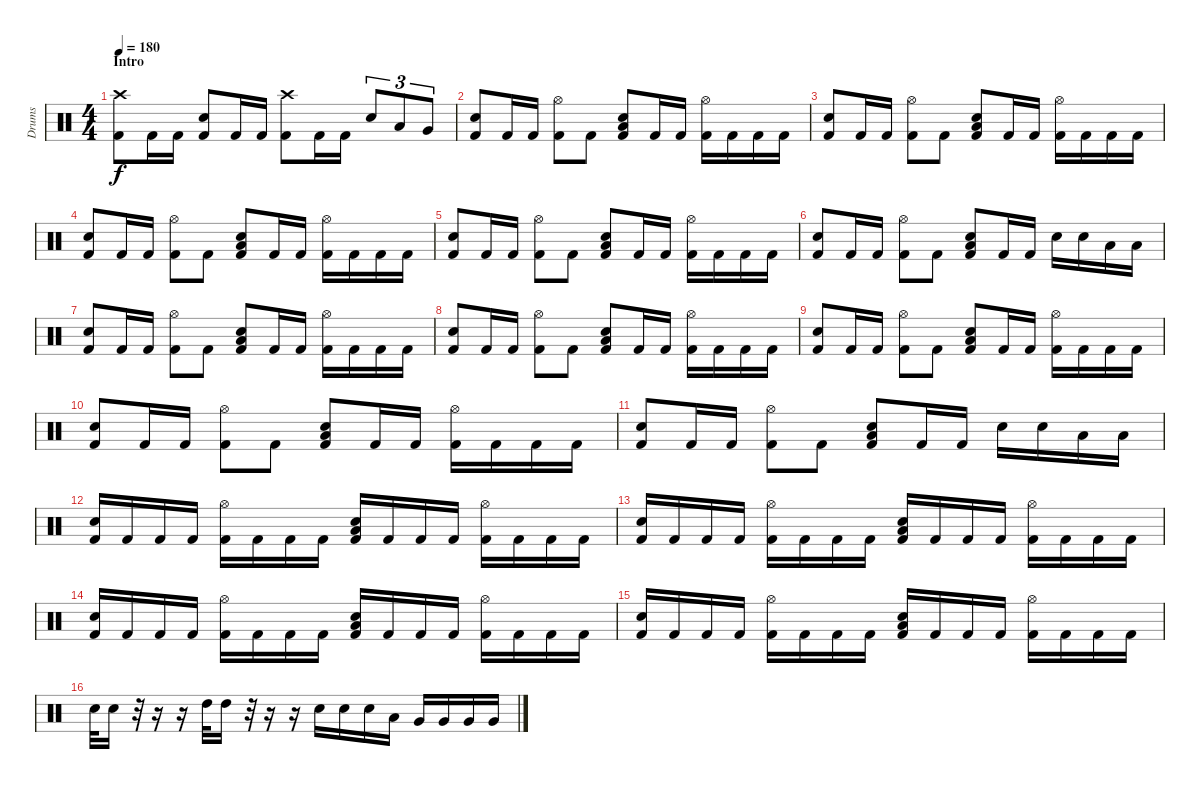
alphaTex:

\track ("Drums" "Drums") {instrument percussion}
\staff {score}
\articulation defaults
\ts (4 4)
\section ("" "Intro")
\tempo 180
\clef neutral
\ks c
("Kick (hit) 2" "Crash high (hit)").8{dy f} "Kick (hit) 2".16 "Kick (hit) 2".16 ("Kick (hit) 2" "Electric Snare (hit)").8 "Kick (hit) 2".16 "Kick (hit) 2".16 ("Kick (hit) 2" "Crash high (hit)").8 "Kick (hit) 2".16 "Kick (hit) 2".16 "Electric Snare (hit)".8{tu (3 2)} "Low Tom (hit)".8{tu (3 2)} "Very Low Tom (hit)".8{tu (3 2)} |
("Kick (hit) 2" "Electric Snare (hit)").8 "Kick (hit) 2".16 "Kick (hit) 2".16 ("Kick (hit) 2" "Hi-Hat (open)").8 "Kick (hit) 2".8 ("Kick (hit) 2" "Low Tom (hit)" "Electric Snare (hit)").8 "Kick (hit) 2".16 "Kick (hit) 2".16 ("Kick (hit) 2" "Hi-Hat (open)").16 "Kick (hit) 2".16 "Kick (hit) 2".16 "Kick (hit) 2".16 |
("Kick (hit) 2" "Electric Snare (hit)").8 "Kick (hit) 2".16 "Kick (hit) 2".16 ("Kick (hit) 2" "Hi-Hat (open)").8 "Kick (hit) 2".8 ("Kick (hit) 2" "Low Tom (hit)" "Electric Snare (hit)").8 "Kick (hit) 2".16 "Kick (hit) 2".16 ("Kick (hit) 2" "Hi-Hat (open)").16 "Kick (hit) 2".16 "Kick (hit) 2".16 "Kick (hit) 2".16 |
("Kick (hit) 2" "Electric Snare (hit)").8 "Kick (hit) 2".16 "Kick (hit) 2".16 ("Kick (hit) 2" "Hi-Hat (open)").8 "Kick (hit) 2".8 ("Kick (hit) 2" "Low Tom (hit)" "Electric Snare (hit)").8 "Kick (hit) 2".16 "Kick (hit) 2".16 ("Kick (hit) 2" "Hi-Hat (open)").16 "Kick (hit) 2".16 "Kick (hit) 2".16 "Kick (hit) 2".16 |
("Kick (hit) 2" "Electric Snare (hit)").8 "Kick (hit) 2".16 "Kick (hit) 2".16 ("Kick (hit) 2" "Hi-Hat (open)").8 "Kick (hit) 2".8 ("Kick (hit) 2" "Low Tom (hit)" "Electric Snare (hit)").8 "Kick (hit) 2".16 "Kick (hit) 2".16 ("Kick (hit) 2" "Hi-Hat (open)").16 "Kick (hit) 2".16 "Kick (hit) 2".16 "Kick (hit) 2".16 |
("Kick (hit) 2" "Electric Snare (hit)").8 "Kick (hit) 2".16 "Kick (hit) 2".16 ("Kick (hit) 2" "Hi-Hat (open)").8 "Kick (hit) 2".8 ("Kick (hit) 2" "Low Tom (hit)" "Electric Snare (hit)").8 "Kick (hit) 2".16 "Kick (hit) 2".16 "Electric Snare (hit)".16 "Electric Snare (hit)".16 "Low Tom (hit)".16 "Low Tom (hit)".16 |
("Kick (hit) 2" "Electric Snare (hit)").8 "Kick (hit) 2".16 "Kick (hit) 2".16 ("Kick (hit) 2" "Hi-Hat (open)").8 "Kick (hit) 2".8 ("Kick (hit) 2" "Low Tom (hit)" "Electric Snare (hit)").8 "Kick (hit) 2".16 "Kick (hit) 2".16 ("Kick (hit) 2" "Hi-Hat (open)").16 "Kick (hit) 2".16 "Kick (hit) 2".16 "Kick (hit) 2".16 |
("Kick (hit) 2" "Electric Snare (hit)").8 "Kick (hit) 2".16 "Kick (hit) 2".16 ("Kick (hit) 2" "Hi-Hat (open)").8 "Kick (hit) 2".8 ("Kick (hit) 2" "Low Tom (hit)" "Electric Snare (hit)").8 "Kick (hit) 2".16 "Kick (hit) 2".16 ("Kick (hit) 2" "Hi-Hat (open)").16 "Kick (hit) 2".16 "Kick (hit) 2".16 "Kick (hit) 2".16 |
("Kick (hit) 2" "Electric Snare (hit)").8 "Kick (hit) 2".16 "Kick (hit) 2".16 ("Kick (hit) 2" "Hi-Hat (open)").8 "Kick (hit) 2".8 ("Kick (hit) 2" "Low Tom (hit)" "Electric Snare (hit)").8 "Kick (hit) 2".16 "Kick (hit) 2".16 ("Kick (hit) 2" "Hi-Hat (open)").16 "Kick (hit) 2".16 "Kick (hit) 2".16 "Kick (hit) 2".16 |
("Kick (hit) 2" "Electric Snare (hit)").8 "Kick (hit) 2".16 "Kick (hit) 2".16 ("Kick (hit) 2" "Hi-Hat (open)").8 "Kick (hit) 2".8 ("Kick (hit) 2" "Low Tom (hit)" "Electric Snare (hit)").8 "Kick (hit) 2".16 "Kick (hit) 2".16 ("Kick (hit) 2" "Hi-Hat (open)").16 "Kick (hit) 2".16 "Kick (hit) 2".16 "Kick (hit) 2".16 |
("Kick (hit) 2" "Electric Snare (hit)").8 "Kick (hit) 2".16 "Kick (hit) 2".16 ("Kick (hit) 2" "Hi-Hat (open)").8 "Kick (hit) 2".8 ("Kick (hit) 2" "Low Tom (hit)" "Electric Snare (hit)").8 "Kick (hit) 2".16 "Kick (hit) 2".16 "Electric Snare (hit)".16 "Electric Snare (hit)".16 "Low Tom (hit)".16 "Low Tom (hit)".16 |
("Kick (hit) 2" "Electric Snare (hit)").16 "Kick (hit) 2".16 "Kick (hit) 2".16 "Kick (hit) 2".16 ("Kick (hit) 2" "Hi-Hat (open)").16 "Kick (hit) 2".16 "Kick (hit) 2".16 "Kick (hit) 2".16 ("Kick (hit) 2" "Low Tom (hit)" "Electric Snare (hit)").16 "Kick (hit) 2".16 "Kick (hit) 2".16 "Kick (hit) 2".16 ("Kick (hit) 2" "Hi-Hat (open)").16 "Kick (hit) 2".16 "Kick (hit) 2".16 "Kick (hit) 2".16 |
("Kick (hit) 2" "Electric Snare (hit)").16 "Kick (hit) 2".16 "Kick (hit) 2".16 "Kick (hit) 2".16 ("Kick (hit) 2" "Hi-Hat (open)").16 "Kick (hit) 2".16 "Kick (hit) 2".16 "Kick (hit) 2".16 ("Kick (hit) 2" "Low Tom (hit)" "Electric Snare (hit)").16 "Kick (hit) 2".16 "Kick (hit) 2".16 "Kick (hit) 2".16 ("Kick (hit) 2" "Hi-Hat (open)").16 "Kick (hit) 2".16 "Kick (hit) 2".16 "Kick (hit) 2".16 |
("Kick (hit) 2" "Electric Snare (hit)").16 "Kick (hit) 2".16 "Kick (hit) 2".16 "Kick (hit) 2".16 ("Kick (hit) 2" "Hi-Hat (open)").16 "Kick (hit) 2".16 "Kick (hit) 2".16 "Kick (hit) 2".16 ("Kick (hit) 2" "Low Tom (hit)" "Electric Snare (hit)").16 "Kick (hit) 2".16 "Kick (hit) 2".16 "Kick (hit) 2".16 ("Kick (hit) 2" "Hi-Hat (open)").16 "Kick (hit) 2".16 "Kick (hit) 2".16 "Kick (hit) 2".16 |
("Kick (hit) 2" "Electric Snare (hit)").16 "Kick (hit) 2".16 "Kick (hit) 2".16 "Kick (hit) 2".16 ("Kick (hit) 2" "Hi-Hat (open)").16 "Kick (hit) 2".16 "Kick (hit) 2".16 "Kick (hit) 2".16 ("Kick (hit) 2" "Low Tom (hit)" "Electric Snare (hit)").16 "Kick (hit) 2".16 "Kick (hit) 2".16 "Kick (hit) 2".16 ("Kick (hit) 2" "Hi-Hat (open)").16 "Kick (hit) 2".16 "Kick (hit) 2".16 "Kick (hit) 2".16 |
"Electric Snare (hit)".32 "Electric Snare (hit)".16 r.32 r.16 r.16 "High Tom (hit)".32 "High Tom (hit)".16 r.32 r.16 r.16 "Electric Snare (hit)".16 "Electric Snare (hit)".16 "Electric Snare (hit)".16 "Low Tom (hit)".16 "Very Low Tom (hit)".16 "Very Low Tom (hit)".16 "Very Low Tom (hit)".16 "Very Low Tom (hit)".16
